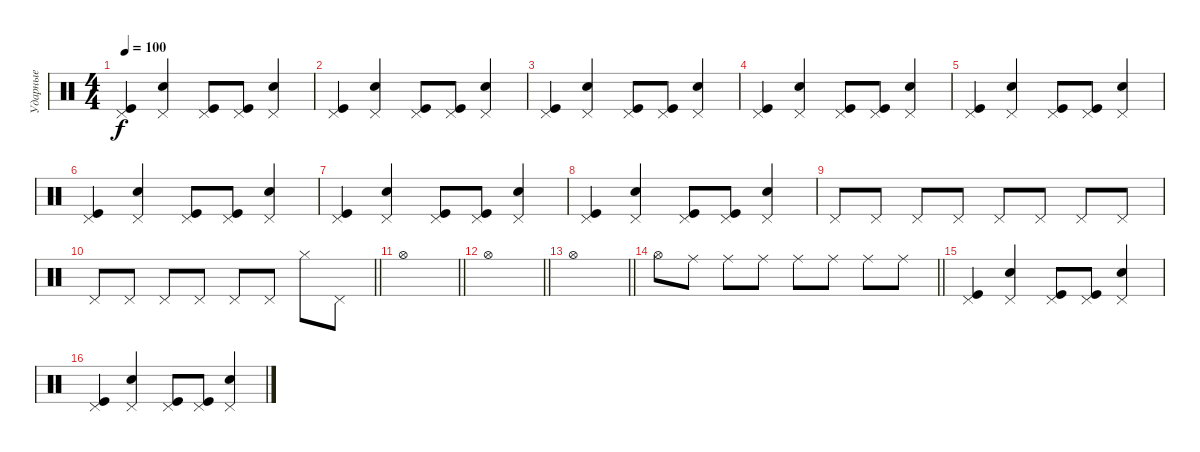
\track ("Ударные" "Ударные") {instrument percussion}
\staff {score}
\articulation defaults
\ts (4 4)
\tempo 100
\clef neutral
\ks c
("Pedal Hi-Hat (hit)" "Kick (hit)").4{dy f} ("Pedal Hi-Hat (hit)" "Snare (hit) 2").4 ("Pedal Hi-Hat (hit)" "Kick (hit)").8 ("Pedal Hi-Hat (hit)" "Kick (hit)").8 ("Pedal Hi-Hat (hit)" "Snare (hit) 2").4 |
("Pedal Hi-Hat (hit)" "Kick (hit)").4 ("Pedal Hi-Hat (hit)" "Snare (hit) 2").4 ("Pedal Hi-Hat (hit)" "Kick (hit)").8 ("Pedal Hi-Hat (hit)" "Kick (hit)").8 ("Pedal Hi-Hat (hit)" "Snare (hit) 2").4 |
("Pedal Hi-Hat (hit)" "Kick (hit)").4 ("Pedal Hi-Hat (hit)" "Snare (hit) 2").4 ("Pedal Hi-Hat (hit)" "Kick (hit)").8 ("Pedal Hi-Hat (hit)" "Kick (hit)").8 ("Pedal Hi-Hat (hit)" "Snare (hit) 2").4 |
("Pedal Hi-Hat (hit)" "Kick (hit)").4 ("Pedal Hi-Hat (hit)" "Snare (hit) 2").4 ("Pedal Hi-Hat (hit)" "Kick (hit)").8 ("Pedal Hi-Hat (hit)" "Kick (hit)").8 ("Pedal Hi-Hat (hit)" "Snare (hit) 2").4 |
("Pedal Hi-Hat (hit)" "Kick (hit)").4 ("Pedal Hi-Hat (hit)" "Snare (hit) 2").4 ("Pedal Hi-Hat (hit)" "Kick (hit)").8 ("Pedal Hi-Hat (hit)" "Kick (hit)").8 ("Pedal Hi-Hat (hit)" "Snare (hit) 2").4 |
("Pedal Hi-Hat (hit)" "Kick (hit)").4 ("Pedal Hi-Hat (hit)" "Snare (hit) 2").4 ("Pedal Hi-Hat (hit)" "Kick (hit)").8 ("Pedal Hi-Hat (hit)" "Kick (hit)").8 ("Pedal Hi-Hat (hit)" "Snare (hit) 2").4 |
("Pedal Hi-Hat (hit)" "Kick (hit)").4 ("Pedal Hi-Hat (hit)" "Snare (hit) 2").4 ("Pedal Hi-Hat (hit)" "Kick (hit)").8 ("Pedal Hi-Hat (hit)" "Kick (hit)").8 ("Pedal Hi-Hat (hit)" "Snare (hit) 2").4 |
("Pedal Hi-Hat (hit)" "Kick (hit)").4 ("Pedal Hi-Hat (hit)" "Snare (hit) 2").4 ("Pedal Hi-Hat (hit)" "Kick (hit)").8 ("Pedal Hi-Hat (hit)" "Kick (hit)").8 ("Pedal Hi-Hat (hit)" "Snare (hit) 2").4 |
"Pedal Hi-Hat (hit)".8 "Pedal Hi-Hat (hit)".8 "Pedal Hi-Hat (hit)".8 "Pedal Hi-Hat (hit)".8 "Pedal Hi-Hat (hit)".8 "Pedal Hi-Hat (hit)".8 "Pedal Hi-Hat (hit)".8 "Pedal Hi-Hat (hit)".8 |
\barLineRight lightlight "Pedal Hi-Hat (hit)".8 "Pedal Hi-Hat (hit)".8 "Pedal Hi-Hat (hit)".8 "Pedal Hi-Hat (hit)".8 "Pedal Hi-Hat (hit)".8 "Pedal Hi-Hat (hit)".8 "Hi-Hat (closed)".8 "Pedal Hi-Hat (hit)".8
|
\barLineRight lightlight "Hi-Hat (open)".1
|
\barLineRight lightlight "Hi-Hat (open)".1
|
\barLineRight lightlight "Hi-Hat (open)".1
|
\barLineRight lightlight "Hi-Hat (open)".8 "Ride (middle)".8 "Ride (middle)".8 "Ride (middle)".8 "Ride (middle)".8 "Ride (middle)".8 "Ride (middle)".8 "Ride (middle)".8
|
("Pedal Hi-Hat (hit)" "Kick (hit)").4 ("Pedal Hi-Hat (hit)" "Snare (hit) 2").4 ("Pedal Hi-Hat (hit)" "Kick (hit)").8 ("Pedal Hi-Hat (hit)" "Kick (hit)").8 ("Pedal Hi-Hat (hit)" "Snare (hit) 2").4 |
("Pedal Hi-Hat (hit)" "Kick (hit)").4 ("Pedal Hi-Hat (hit)" "Snare (hit) 2").4 ("Pedal Hi-Hat (hit)" "Kick (hit)").8 ("Pedal Hi-Hat (hit)" "Kick (hit)").8 ("Pedal Hi-Hat (hit)" "Snare (hit) 2").4
